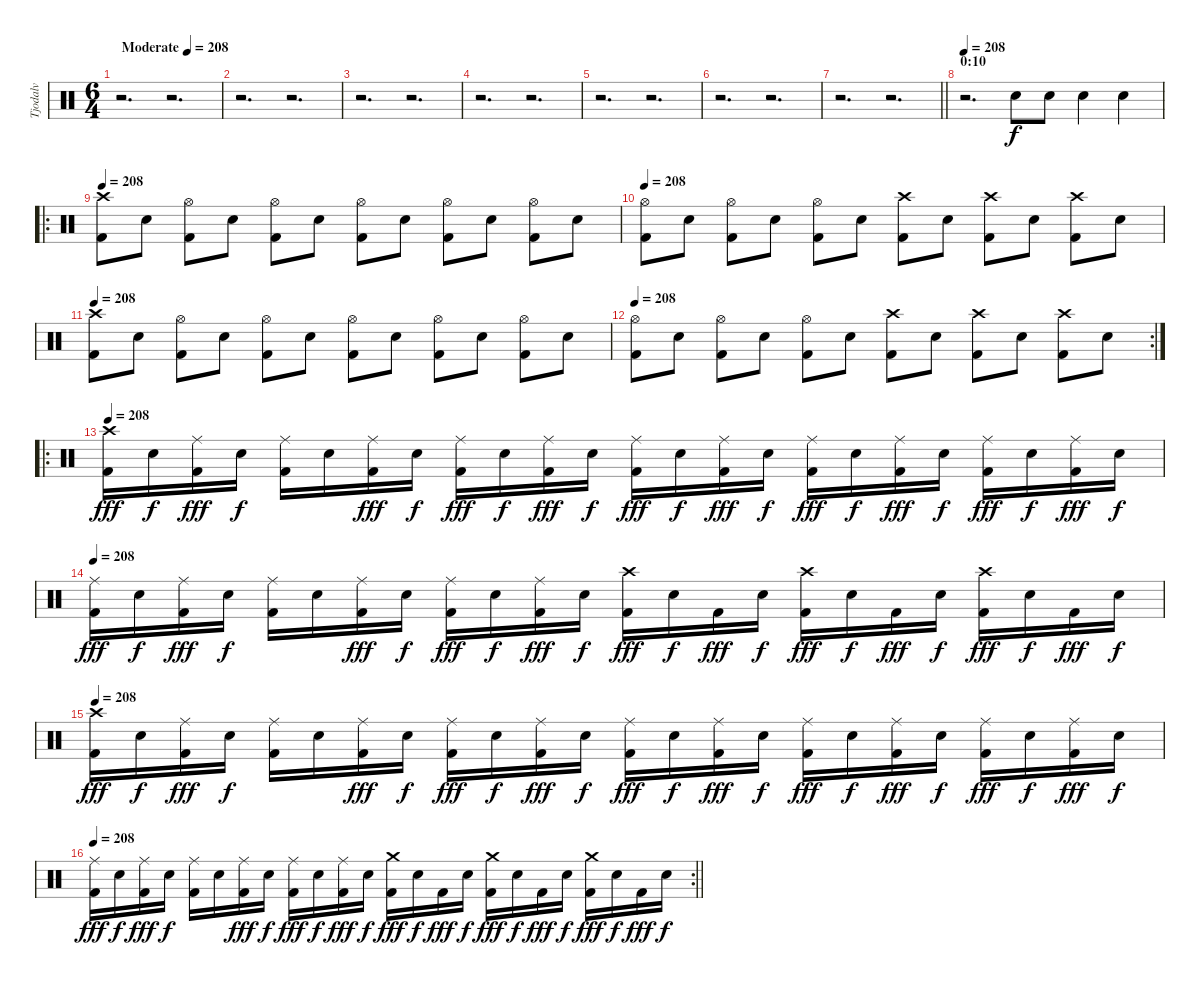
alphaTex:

\track ("Tjodalv" "Tjodalv") {instrument percussion}
\staff {score}
\articulation defaults
\ts (6 4)
\tempo (208 "Moderate")
\clef neutral
\ks c
r.2{d dy f} r.2{d} |
r.2{d} r.2{d} |
r.2{d} r.2{d} |
r.2{d} r.2{d} |
r.2{d} r.2{d} |
r.2{d} r.2{d} |
\barLineRight lightlight
r.2{d} r.2{d} |
\section ("" "0:10")
\tempo 208
r.2{d} "Snare (hit) 2".8 "Snare (hit) 2".8 "Snare (hit) 2".4 "Snare (hit) 2".4 |
\ro
\tempo 208
("Kick (hit) 2" "Crash high (hit)").8 "Snare (hit) 2".8 ("Kick (hit) 2" "Hi-Hat (open)").8 "Snare (hit) 2".8 ("Kick (hit) 2" "Hi-Hat (open)").8 "Snare (hit) 2".8 ("Kick (hit) 2" "Hi-Hat (open)").8 "Snare (hit) 2".8 ("Kick (hit) 2" "Hi-Hat (open)").8 "Snare (hit) 2".8 ("Kick (hit) 2" "Hi-Hat (open)").8 "Snare (hit) 2".8 |
\tempo 208
("Kick (hit) 2" "Hi-Hat (open)").8 "Snare (hit) 2".8 ("Kick (hit) 2" "Hi-Hat (open)").8 "Snare (hit) 2".8 ("Kick (hit) 2" "Hi-Hat (open)").8 "Snare (hit) 2".8 ("Kick (hit) 2" "Crash high (hit)").8 "Snare (hit) 2".8 ("Kick (hit) 2" "Crash high (hit)").8 "Snare (hit) 2".8 ("Kick (hit) 2" "Crash high (hit)").8 "Snare (hit) 2".8 |
\tempo 208
("Kick (hit) 2" "Crash high (hit)").8 "Snare (hit) 2".8 ("Kick (hit) 2" "Hi-Hat (open)").8 "Snare (hit) 2".8 ("Kick (hit) 2" "Hi-Hat (open)").8 "Snare (hit) 2".8 ("Kick (hit) 2" "Hi-Hat (open)").8 "Snare (hit) 2".8 ("Kick (hit) 2" "Hi-Hat (open)").8 "Snare (hit) 2".8 ("Kick (hit) 2" "Hi-Hat (open)").8 "Snare (hit) 2".8 |
\rc 2
\tempo 208
("Kick (hit) 2" "Hi-Hat (open)").8 "Snare (hit) 2".8 ("Kick (hit) 2" "Hi-Hat (open)").8 "Snare (hit) 2".8 ("Kick (hit) 2" "Hi-Hat (open)").8 "Snare (hit) 2".8 ("Kick (hit) 2" "Crash high (hit)").8 "Snare (hit) 2".8 ("Kick (hit) 2" "Crash high (hit)").8 "Snare (hit) 2".8 ("Kick (hit) 2" "Crash high (hit)").8 "Snare (hit) 2".8 |
\ro
\tempo 208
("Kick (hit) 2" "Crash high (hit)").16{dy fff} "Snare (hit) 2".16{dy f} ("Kick (hit) 2" "Ride (middle)").16{dy fff} "Snare (hit) 2".16{dy f} ("Kick (hit) 2" "Ride (middle)").16 "Snare (hit) 2".16 ("Kick (hit) 2" "Ride (middle)").16{dy fff} "Snare (hit) 2".16{dy f} ("Kick (hit) 2" "Ride (middle)").16{dy fff} "Snare (hit) 2".16{dy f} ("Kick (hit) 2" "Ride (middle)").16{dy fff} "Snare (hit) 2".16{dy f} ("Kick (hit) 2" "Ride (middle)").16{dy fff} "Snare (hit) 2".16{dy f} ("Kick (hit) 2" "Ride (middle)").16{dy fff} "Snare (hit) 2".16{dy f} ("Kick (hit) 2" "Ride (middle)").16{dy fff} "Snare (hit) 2".16{dy f} ("Kick (hit) 2" "Ride (middle)").16{dy fff} "Snare (hit) 2".16{dy f} ("Kick (hit) 2" "Ride (middle)").16{dy fff} "Snare (hit) 2".16{dy f} ("Kick (hit) 2" "Ride (middle)").16{dy fff} "Snare (hit) 2".16{dy f} |
\tempo 208
("Kick (hit) 2" "Ride (middle)").16{dy fff} "Snare (hit) 2".16{dy f} ("Kick (hit) 2" "Ride (middle)").16{dy fff} "Snare (hit) 2".16{dy f} ("Kick (hit) 2" "Ride (middle)").16 "Snare (hit) 2".16 ("Kick (hit) 2" "Ride (middle)").16{dy fff} "Snare (hit) 2".16{dy f} ("Kick (hit) 2" "Ride (middle)").16{dy fff} "Snare (hit) 2".16{dy f} ("Kick (hit) 2" "Ride (middle)").16{dy fff} "Snare (hit) 2".16{dy f} ("Kick (hit) 2" "Crash high (hit)").16{dy fff} "Snare (hit) 2".16{dy f} "Kick (hit) 2".16{dy fff} "Snare (hit) 2".16{dy f} ("Kick (hit) 2" "Crash high (hit)").16{dy fff} "Snare (hit) 2".16{dy f} "Kick (hit) 2".16{dy fff} "Snare (hit) 2".16{dy f} ("Kick (hit) 2" "Crash high (hit)").16{dy fff} "Snare (hit) 2".16{dy f} "Kick (hit) 2".16{dy fff} "Snare (hit) 2".16{dy f} |
\tempo 208
("Kick (hit) 2" "Crash high (hit)").16{dy fff} "Snare (hit) 2".16{dy f} ("Kick (hit) 2" "Ride (middle)").16{dy fff} "Snare (hit) 2".16{dy f} ("Kick (hit) 2" "Ride (middle)").16 "Snare (hit) 2".16 ("Kick (hit) 2" "Ride (middle)").16{dy fff} "Snare (hit) 2".16{dy f} ("Kick (hit) 2" "Ride (middle)").16{dy fff} "Snare (hit) 2".16{dy f} ("Kick (hit) 2" "Ride (middle)").16{dy fff} "Snare (hit) 2".16{dy f} ("Kick (hit) 2" "Ride (middle)").16{dy fff} "Snare (hit) 2".16{dy f} ("Kick (hit) 2" "Ride (middle)").16{dy fff} "Snare (hit) 2".16{dy f} ("Kick (hit) 2" "Ride (middle)").16{dy fff} "Snare (hit) 2".16{dy f} ("Kick (hit) 2" "Ride (middle)").16{dy fff} "Snare (hit) 2".16{dy f} ("Kick (hit) 2" "Ride (middle)").16{dy fff} "Snare (hit) 2".16{dy f} ("Kick (hit) 2" "Ride (middle)").16{dy fff} "Snare (hit) 2".16{dy f} |
\rc 2
\tempo 208
\barLineRight lightlight
("Kick (hit) 2" "Ride (middle)").16{dy fff} "Snare (hit) 2".16{dy f} ("Kick (hit) 2" "Ride (middle)").16{dy fff} "Snare (hit) 2".16{dy f} ("Kick (hit) 2" "Ride (middle)").16 "Snare (hit) 2".16 ("Kick (hit) 2" "Ride (middle)").16{dy fff} "Snare (hit) 2".16{dy f} ("Kick (hit) 2" "Ride (middle)").16{dy fff} "Snare (hit) 2".16{dy f} ("Kick (hit) 2" "Ride (middle)").16{dy fff} "Snare (hit) 2".16{dy f} ("Kick (hit) 2" "Crash medium (hit)").16{dy fff} "Snare (hit) 2".16{dy f} "Kick (hit) 2".16{dy fff} "Snare (hit) 2".16{dy f} ("Kick (hit) 2" "Crash medium (hit)").16{dy fff} "Snare (hit) 2".16{dy f} "Kick (hit) 2".16{dy fff} "Snare (hit) 2".16{dy f} ("Kick (hit) 2" "Crash medium (hit)").16{dy fff} "Snare (hit) 2".16{dy f} "Kick (hit) 2".16{dy fff} "Snare (hit) 2".16{dy f}
